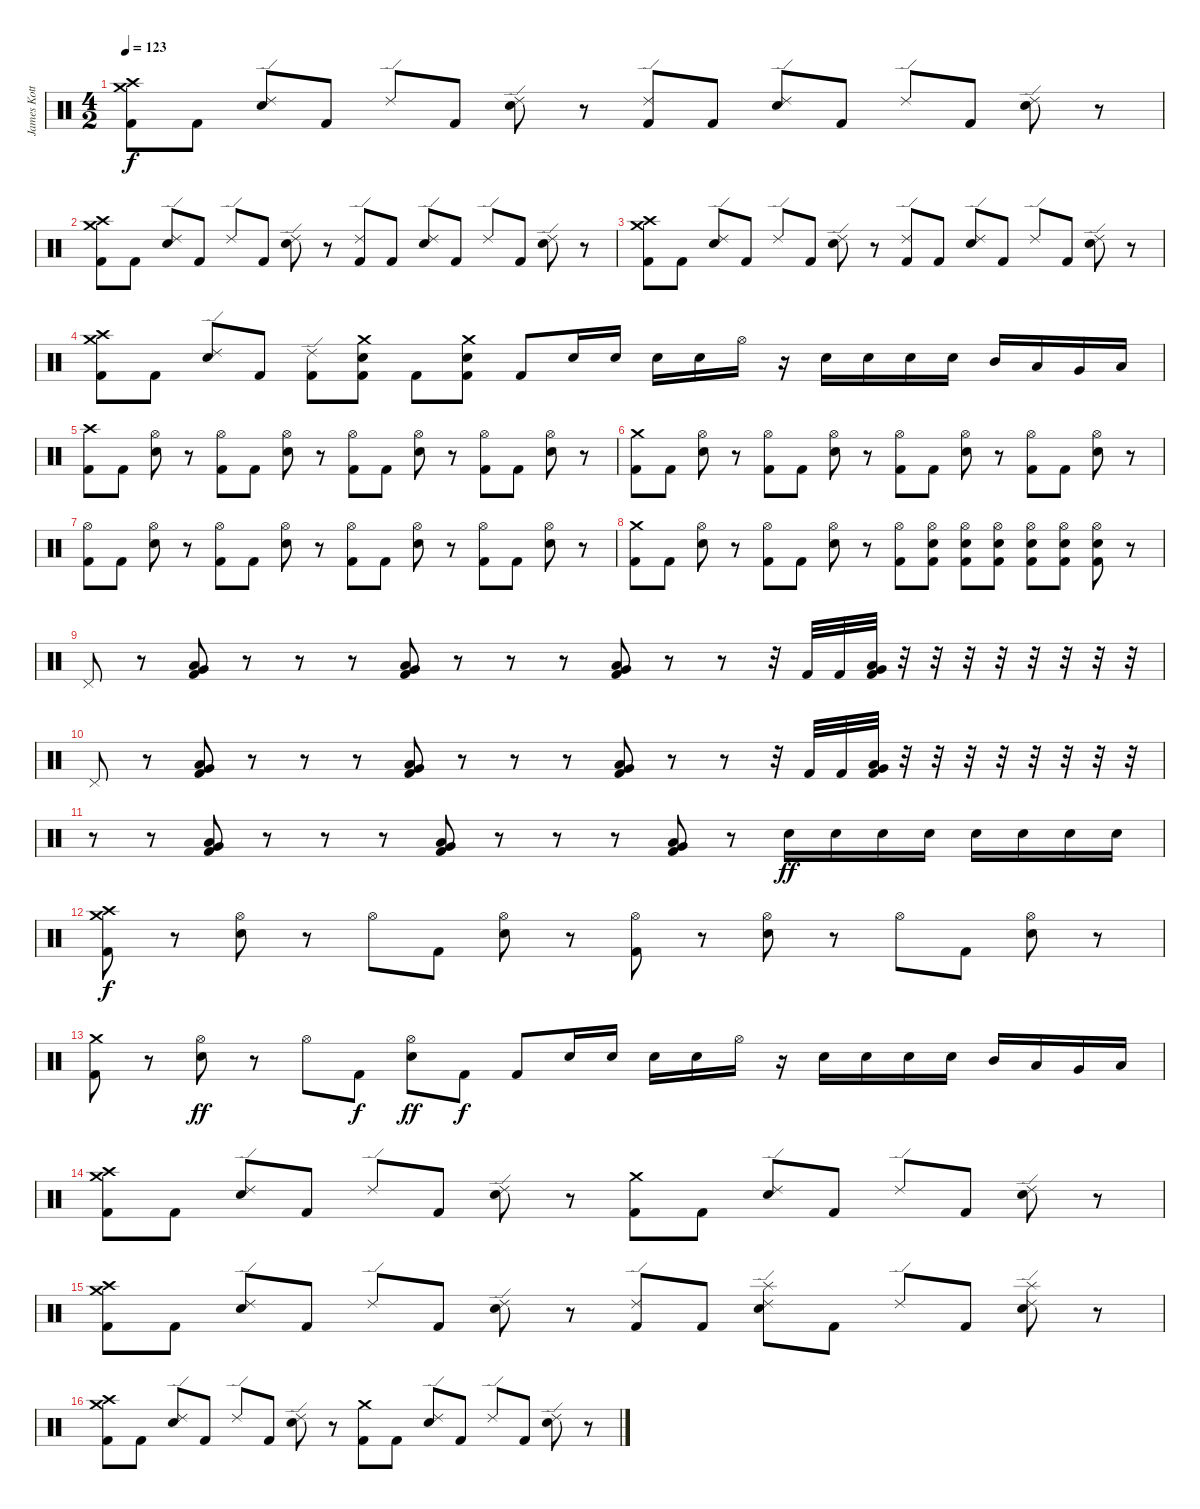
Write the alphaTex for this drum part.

\track ("James Kottak" "James Kott") {instrument percussion}
\staff {score}
\articulation defaults
\ts (4 2)
\tempo 123
\clef neutral
\ks c
("Crash medium (hit)" "Crash high (hit)" "Kick (hit) 2").8{dy f} "Kick (hit) 2".8 ("Ride (edge) 2" "Electric Snare (hit)").8 "Kick (hit) 2".8 "Ride (edge) 2".8 "Kick (hit) 2".8 ("Ride (edge) 2" "Electric Snare (hit)").8 r.8 ("Ride (edge) 2" "Kick (hit) 2").8 "Kick (hit) 2".8 ("Ride (edge) 2" "Electric Snare (hit)").8 "Kick (hit) 2".8 "Ride (edge) 2".8 "Kick (hit) 2".8 ("Ride (edge) 2" "Electric Snare (hit)").8 r.8 |
("Crash medium (hit)" "Crash high (hit)" "Kick (hit) 2").8 "Kick (hit) 2".8 ("Ride (edge) 2" "Electric Snare (hit)").8 "Kick (hit) 2".8 "Ride (edge) 2".8 "Kick (hit) 2".8 ("Ride (edge) 2" "Electric Snare (hit)").8 r.8 ("Ride (edge) 2" "Kick (hit) 2").8 "Kick (hit) 2".8 ("Ride (edge) 2" "Electric Snare (hit)").8 "Kick (hit) 2".8 "Ride (edge) 2".8 "Kick (hit) 2".8 ("Ride (edge) 2" "Electric Snare (hit)").8 r.8 |
("Crash medium (hit)" "Crash high (hit)" "Kick (hit) 2").8 "Kick (hit) 2".8 ("Ride (edge) 2" "Electric Snare (hit)").8 "Kick (hit) 2".8 "Ride (edge) 2".8 "Kick (hit) 2".8 ("Ride (edge) 2" "Electric Snare (hit)").8 r.8 ("Ride (edge) 2" "Kick (hit) 2").8 "Kick (hit) 2".8 ("Ride (edge) 2" "Electric Snare (hit)").8 "Kick (hit) 2".8 "Ride (edge) 2".8 "Kick (hit) 2".8 ("Ride (edge) 2" "Electric Snare (hit)").8 r.8 |
("Crash medium (hit)" "Crash high (hit)" "Kick (hit) 2").8 "Kick (hit) 2".8 ("Ride (edge) 2" "Electric Snare (hit)").8 "Kick (hit) 2".8 ("Ride (edge) 2" "Kick (hit) 2").8 ("Crash medium (hit)" "Electric Snare (hit)" "Kick (hit) 2").8 "Kick (hit) 2".8 ("Crash medium (hit)" "Electric Snare (hit)" "Kick (hit) 2").8 "Kick (hit) 2".8 "Electric Snare (hit)".16 "Electric Snare (hit)".16 "Electric Snare (hit)".16 "Electric Snare (hit)".16 "Hi-Hat (open)".16 r.16 "Electric Snare (hit)".16 "Electric Snare (hit)".16 "Electric Snare (hit)".16 "Electric Snare (hit)".16 "Mid Tom (hit)".16 "Low Tom (hit)".16 "Very Low Tom (hit)".16 "Low Floor Tom (hit)".16 |
("Crash high (hit)" "Kick (hit) 2").8 "Kick (hit) 2".8 ("Hi-Hat (open)" "Electric Snare (hit)").8 r.8 ("Hi-Hat (open)" "Kick (hit) 2").8 "Kick (hit) 2".8 ("Hi-Hat (open)" "Electric Snare (hit)").8 r.8 ("Hi-Hat (open)" "Kick (hit) 2").8 "Kick (hit) 2".8 ("Hi-Hat (open)" "Electric Snare (hit)").8 r.8 ("Hi-Hat (open)" "Kick (hit) 2").8 "Kick (hit) 2".8 ("Hi-Hat (open)" "Electric Snare (hit)").8 r.8 |
("Crash medium (hit)" "Kick (hit) 2").8 "Kick (hit) 2".8 ("Hi-Hat (open)" "Electric Snare (hit)").8 r.8 ("Hi-Hat (open)" "Kick (hit) 2").8 "Kick (hit) 2".8 ("Hi-Hat (open)" "Electric Snare (hit)").8 r.8 ("Hi-Hat (open)" "Kick (hit) 2").8 "Kick (hit) 2".8 ("Hi-Hat (open)" "Electric Snare (hit)").8 r.8 ("Hi-Hat (open)" "Kick (hit) 2").8 "Kick (hit) 2".8 ("Hi-Hat (open)" "Electric Snare (hit)").8 r.8 |
("Hi-Hat (open)" "Kick (hit) 2").8 "Kick (hit) 2".8 ("Hi-Hat (open)" "Electric Snare (hit)").8 r.8 ("Hi-Hat (open)" "Kick (hit) 2").8 "Kick (hit) 2".8 ("Hi-Hat (open)" "Electric Snare (hit)").8 r.8 ("Hi-Hat (open)" "Kick (hit) 2").8 "Kick (hit) 2".8 ("Hi-Hat (open)" "Electric Snare (hit)").8 r.8 ("Hi-Hat (open)" "Kick (hit) 2").8 "Kick (hit) 2".8 ("Hi-Hat (open)" "Electric Snare (hit)").8 r.8 |
("Crash medium (hit)" "Kick (hit) 2").8 "Kick (hit) 2".8 ("Hi-Hat (open)" "Electric Snare (hit)").8 r.8 ("Hi-Hat (open)" "Kick (hit) 2").8 "Kick (hit) 2".8 ("Hi-Hat (open)" "Electric Snare (hit)").8 r.8 ("Hi-Hat (open)" "Kick (hit) 2").8 ("Hi-Hat (open)" "Electric Snare (hit)" "Kick (hit) 2").8 ("Hi-Hat (open)" "Electric Snare (hit)" "Kick (hit) 2").8 ("Hi-Hat (open)" "Electric Snare (hit)" "Kick (hit) 2").8 ("Hi-Hat (open)" "Electric Snare (hit)" "Kick (hit) 2").8 ("Hi-Hat (open)" "Electric Snare (hit)" "Kick (hit) 2").8 ("Hi-Hat (open)" "Electric Snare (hit)" "Kick (hit) 2").8 r.8 |
"Pedal Hi-Hat (hit)".8 r.8 ("Very Low Tom (hit)" "Kick (hit) 2" "Low Floor Tom (hit)").8 r.8 r.8 r.8 ("Very Low Tom (hit)" "Kick (hit) 2" "Low Floor Tom (hit)").8 r.8 r.8 r.8 ("Very Low Tom (hit)" "Kick (hit) 2" "Low Floor Tom (hit)").8 r.8 r.8 r.32 "Kick (hit) 2".32 "Kick (hit) 2".32 ("Very Low Tom (hit)" "Kick (hit) 2" "Low Floor Tom (hit)").32 r.32 r.32 r.32 r.32 r.32 r.32 r.32 r.32 |
"Pedal Hi-Hat (hit)".8 r.8 ("Very Low Tom (hit)" "Kick (hit) 2" "Low Floor Tom (hit)").8 r.8 r.8 r.8 ("Very Low Tom (hit)" "Kick (hit) 2" "Low Floor Tom (hit)").8 r.8 r.8 r.8 ("Very Low Tom (hit)" "Kick (hit) 2" "Low Floor Tom (hit)").8 r.8 r.8 r.32 "Kick (hit) 2".32 "Kick (hit) 2".32 ("Very Low Tom (hit)" "Kick (hit) 2" "Low Floor Tom (hit)").32 r.32 r.32 r.32 r.32 r.32 r.32 r.32 r.32 |
r.8 r.8 ("Very Low Tom (hit)" "Kick (hit) 2" "Low Floor Tom (hit)").8 r.8 r.8 r.8 ("Very Low Tom (hit)" "Kick (hit) 2" "Low Floor Tom (hit)").8 r.8 r.8 r.8 ("Very Low Tom (hit)" "Kick (hit) 2" "Low Floor Tom (hit)").8 r.8 "Electric Snare (hit)".16{dy ff} "Electric Snare (hit)".16 "Electric Snare (hit)".16 "Electric Snare (hit)".16 "Electric Snare (hit)".16 "Electric Snare (hit)".16 "Electric Snare (hit)".16 "Electric Snare (hit)".16 |
("Crash high (hit)" "Crash medium (hit)" "Kick (hit) 2").8{dy f} r.8 ("Hi-Hat (open)" "Electric Snare (hit)").8 r.8 "Hi-Hat (open)".8 "Kick (hit) 2".8 ("Hi-Hat (open)" "Electric Snare (hit)").8 r.8 ("Hi-Hat (open)" "Kick (hit) 2").8 r.8 ("Hi-Hat (open)" "Electric Snare (hit)").8 r.8 "Hi-Hat (open)".8 "Kick (hit) 2".8 ("Hi-Hat (open)" "Electric Snare (hit)").8 r.8 |
("Crash medium (hit)" "Kick (hit) 2").8 r.8 ("Hi-Hat (open)" "Electric Snare (hit)").8{dy ff} r.8 "Hi-Hat (open)".8 "Kick (hit) 2".8{dy f} ("Hi-Hat (open)" "Electric Snare (hit)").8{dy ff} "Kick (hit) 2".8{dy f} "Kick (hit) 2".8 "Electric Snare (hit)".16 "Electric Snare (hit)".16 "Electric Snare (hit)".16 "Electric Snare (hit)".16 "Hi-Hat (open)".16 r.16 "Electric Snare (hit)".16 "Electric Snare (hit)".16 "Electric Snare (hit)".16 "Electric Snare (hit)".16 "Mid Tom (hit)".16 "Low Tom (hit)".16 "Very Low Tom (hit)".16 "Low Floor Tom (hit)".16 |
("Crash medium (hit)" "Crash high (hit)" "Kick (hit) 2").8 "Kick (hit) 2".8 ("Ride (edge) 2" "Electric Snare (hit)").8 "Kick (hit) 2".8 "Ride (edge) 2".8 "Kick (hit) 2".8 ("Ride (edge) 2" "Electric Snare (hit)").8 r.8 ("Crash medium (hit)" "Kick (hit) 2").8 "Kick (hit) 2".8 ("Ride (edge) 2" "Electric Snare (hit)").8 "Kick (hit) 2".8 "Ride (edge) 2".8 "Kick (hit) 2".8 ("Ride (edge) 2" "Electric Snare (hit)").8 r.8 |
("Crash medium (hit)" "Crash high (hit)" "Kick (hit) 2").8 "Kick (hit) 2".8 ("Ride (edge) 2" "Electric Snare (hit)").8 "Kick (hit) 2".8 "Ride (edge) 2".8 "Kick (hit) 2".8 ("Ride (edge) 2" "Electric Snare (hit)").8 r.8 ("Ride (edge) 2" "Kick (hit) 2").8 "Kick (hit) 2".8 ("Splash (hit)" "Ride (edge) 2" "Electric Snare (hit)").8 "Kick (hit) 2".8 "Ride (edge) 2".8 "Kick (hit) 2".8 ("Splash (hit)" "Ride (edge) 2" "Electric Snare (hit)").8 r.8 |
("Crash medium (hit)" "Crash high (hit)" "Kick (hit) 2").8 "Kick (hit) 2".8 ("Ride (edge) 2" "Electric Snare (hit)").8 "Kick (hit) 2".8 "Ride (edge) 2".8 "Kick (hit) 2".8 ("Ride (edge) 2" "Electric Snare (hit)").8 r.8 ("Crash medium (hit)" "Kick (hit) 2").8 "Kick (hit) 2".8 ("Ride (edge) 2" "Electric Snare (hit)").8 "Kick (hit) 2".8 "Ride (edge) 2".8 "Kick (hit) 2".8 ("Ride (edge) 2" "Electric Snare (hit)").8 r.8
